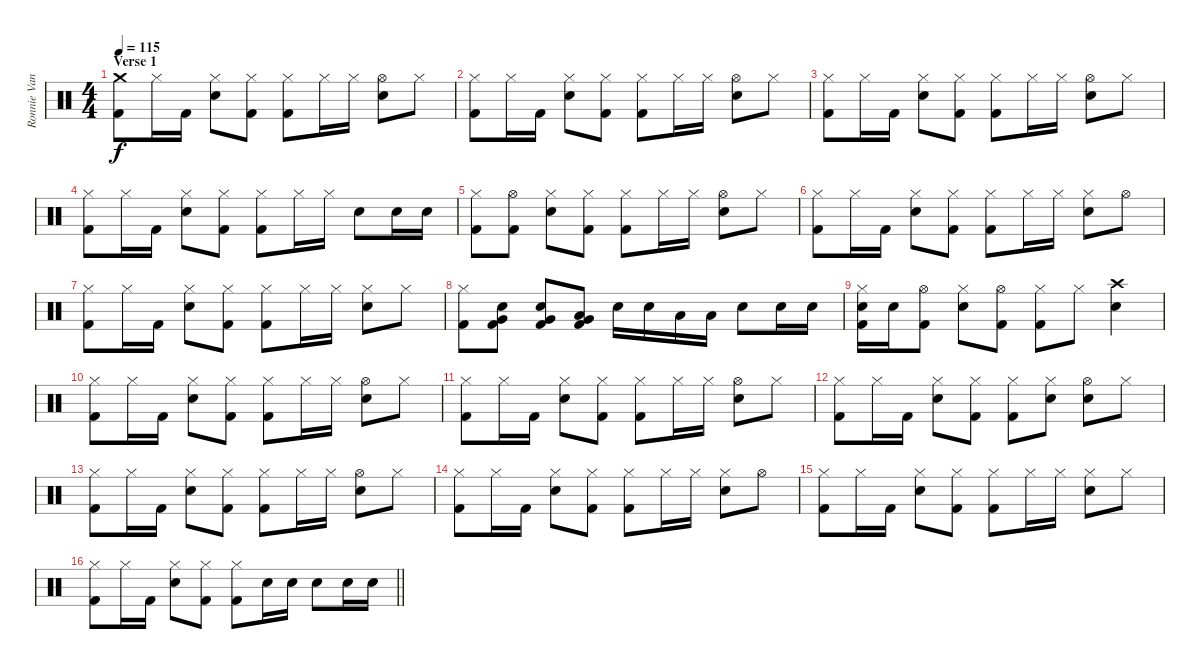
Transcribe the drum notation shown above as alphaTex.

\track ("Ronnie Vannucci Jr. (Drums)" "Ronnie Van") {instrument percussion}
\staff {score}
\articulation defaults
\ts (4 4)
\section ("" "Verse 1")
\tempo 115
\clef neutral
\ks c
("Crash medium (hit)" "Kick (hit) 2").8{dy f} "Hi-Hat (closed)".16 "Kick (hit) 2".16 ("Hi-Hat (closed)" "Electric Snare (hit)").8 ("Hi-Hat (closed)" "Kick (hit) 2").8 ("Hi-Hat (closed)" "Kick (hit) 2").8 "Hi-Hat (closed)".16 "Hi-Hat (closed)".16 ("Hi-Hat (open)" "Electric Snare (hit)").8 "Hi-Hat (closed)".8 |
("Hi-Hat (closed)" "Kick (hit) 2").8 "Hi-Hat (closed)".16 "Kick (hit) 2".16 ("Hi-Hat (closed)" "Electric Snare (hit)").8 ("Hi-Hat (closed)" "Kick (hit) 2").8 ("Hi-Hat (closed)" "Kick (hit) 2").8 "Hi-Hat (closed)".16 "Hi-Hat (closed)".16 ("Hi-Hat (open)" "Electric Snare (hit)").8 "Hi-Hat (closed)".8 |
("Hi-Hat (closed)" "Kick (hit) 2").8 "Hi-Hat (closed)".16 "Kick (hit) 2".16 ("Hi-Hat (closed)" "Electric Snare (hit)").8 ("Hi-Hat (closed)" "Kick (hit) 2").8 ("Hi-Hat (closed)" "Kick (hit) 2").8 "Hi-Hat (closed)".16 "Hi-Hat (closed)".16 ("Hi-Hat (open)" "Electric Snare (hit)").8 "Hi-Hat (closed)".8 |
("Hi-Hat (closed)" "Kick (hit) 2").8 "Hi-Hat (closed)".16 "Kick (hit) 2".16 ("Hi-Hat (closed)" "Electric Snare (hit)").8 ("Hi-Hat (closed)" "Kick (hit) 2").8 ("Hi-Hat (closed)" "Kick (hit) 2").8 "Hi-Hat (closed)".16 "Hi-Hat (closed)".16 "Electric Snare (hit)".8 "Electric Snare (hit)".16 "Electric Snare (hit)".16 |
("Hi-Hat (closed)" "Kick (hit) 2").8 ("Hi-Hat (open)" "Kick (hit) 2").8 ("Hi-Hat (closed)" "Electric Snare (hit)").8 ("Hi-Hat (closed)" "Kick (hit) 2").8 ("Hi-Hat (closed)" "Kick (hit) 2").8 "Hi-Hat (closed)".16 "Hi-Hat (closed)".16 ("Hi-Hat (open)" "Electric Snare (hit)").8 "Hi-Hat (closed)".8 |
("Hi-Hat (closed)" "Kick (hit) 2").8 "Hi-Hat (closed)".16 "Kick (hit) 2".16 ("Hi-Hat (closed)" "Electric Snare (hit)").8 ("Hi-Hat (closed)" "Kick (hit) 2").8 ("Hi-Hat (closed)" "Kick (hit) 2").8 "Hi-Hat (closed)".16 "Hi-Hat (closed)".16 ("Hi-Hat (closed)" "Electric Snare (hit)").8 "Hi-Hat (open)".8 |
("Hi-Hat (closed)" "Kick (hit) 2").8 "Hi-Hat (closed)".16 "Kick (hit) 2".16 ("Hi-Hat (closed)" "Electric Snare (hit)").8 ("Hi-Hat (closed)" "Kick (hit) 2").8 ("Hi-Hat (closed)" "Kick (hit) 2").8 "Hi-Hat (closed)".16 "Hi-Hat (closed)".16 ("Hi-Hat (closed)" "Electric Snare (hit)").8 "Hi-Hat (closed)".8 |
("Hi-Hat (closed)" "Kick (hit) 2").8 ("Very Low Tom (hit)" "Electric Snare (hit)" "Kick (hit) 2").8 ("Very Low Tom (hit)" "Electric Snare (hit)" "Kick (hit) 2").8 ("Very Low Tom (hit)" "Low Tom (hit)" "Kick (hit) 2").8 "Electric Snare (hit)".16 "Electric Snare (hit)".16 "Low Tom (hit)".16 "Low Tom (hit)".16 "Electric Snare (hit)".8 "Electric Snare (hit)".16 "Electric Snare (hit)".16 |
("Hi-Hat (closed)" "Electric Snare (hit)" "Kick (hit) 2").16 "Electric Snare (hit)".16 ("Hi-Hat (open)" "Kick (hit) 2").8 ("Hi-Hat (closed)" "Electric Snare (hit)").8 ("Hi-Hat (open)" "Kick (hit) 2").8 ("Hi-Hat (closed)" "Kick (hit) 2").8 "Hi-Hat (closed)".8 ("Crash high (hit)" "Electric Snare (hit)").4 |
("Hi-Hat (closed)" "Kick (hit) 2").8 "Hi-Hat (closed)".16 "Kick (hit) 2".16 ("Hi-Hat (closed)" "Electric Snare (hit)").8 ("Hi-Hat (closed)" "Kick (hit) 2").8 ("Hi-Hat (closed)" "Kick (hit) 2").8 "Hi-Hat (closed)".16 "Hi-Hat (closed)".16 ("Hi-Hat (open)" "Electric Snare (hit)").8 "Hi-Hat (closed)".8 |
("Hi-Hat (closed)" "Kick (hit) 2").8 "Hi-Hat (closed)".16 "Kick (hit) 2".16 ("Hi-Hat (closed)" "Electric Snare (hit)").8 ("Hi-Hat (closed)" "Kick (hit) 2").8 ("Hi-Hat (closed)" "Kick (hit) 2").8 "Hi-Hat (closed)".16 "Hi-Hat (closed)".16 ("Hi-Hat (open)" "Electric Snare (hit)").8 "Hi-Hat (closed)".8 |
("Hi-Hat (closed)" "Kick (hit) 2").8 "Hi-Hat (closed)".16 "Kick (hit) 2".16 ("Hi-Hat (closed)" "Electric Snare (hit)").8 ("Hi-Hat (closed)" "Kick (hit) 2").8 ("Hi-Hat (closed)" "Kick (hit) 2").8 ("Hi-Hat (closed)" "Electric Snare (hit)").8 ("Hi-Hat (open)" "Electric Snare (hit)").8 "Hi-Hat (closed)".8 |
("Hi-Hat (closed)" "Kick (hit) 2").8 "Hi-Hat (closed)".16 "Kick (hit) 2".16 ("Hi-Hat (closed)" "Electric Snare (hit)").8 ("Hi-Hat (closed)" "Kick (hit) 2").8 ("Hi-Hat (closed)" "Kick (hit) 2").8 "Hi-Hat (closed)".16 "Hi-Hat (closed)".16 ("Hi-Hat (open)" "Electric Snare (hit)").8 "Hi-Hat (closed)".8 |
("Hi-Hat (closed)" "Kick (hit) 2").8 "Hi-Hat (closed)".16 "Kick (hit) 2".16 ("Hi-Hat (closed)" "Electric Snare (hit)").8 ("Hi-Hat (closed)" "Kick (hit) 2").8 ("Hi-Hat (closed)" "Kick (hit) 2").8 "Hi-Hat (closed)".16 "Hi-Hat (closed)".16 ("Hi-Hat (closed)" "Electric Snare (hit)").8 "Hi-Hat (open)".8 |
("Hi-Hat (closed)" "Kick (hit) 2").8 "Hi-Hat (closed)".16 "Kick (hit) 2".16 ("Hi-Hat (closed)" "Electric Snare (hit)").8 ("Hi-Hat (closed)" "Kick (hit) 2").8 ("Hi-Hat (closed)" "Kick (hit) 2").8 "Hi-Hat (closed)".16 "Hi-Hat (closed)".16 ("Hi-Hat (closed)" "Electric Snare (hit)").8 "Hi-Hat (closed)".8 |
\barLineRight lightlight
("Hi-Hat (closed)" "Kick (hit) 2").8 "Hi-Hat (closed)".16 "Kick (hit) 2".16 ("Hi-Hat (closed)" "Electric Snare (hit)").8 ("Hi-Hat (closed)" "Kick (hit) 2").8 ("Hi-Hat (closed)" "Kick (hit) 2").8 "Electric Snare (hit)".16 "Electric Snare (hit)".16 "Electric Snare (hit)".8 "Electric Snare (hit)".16 "Electric Snare (hit)".16
